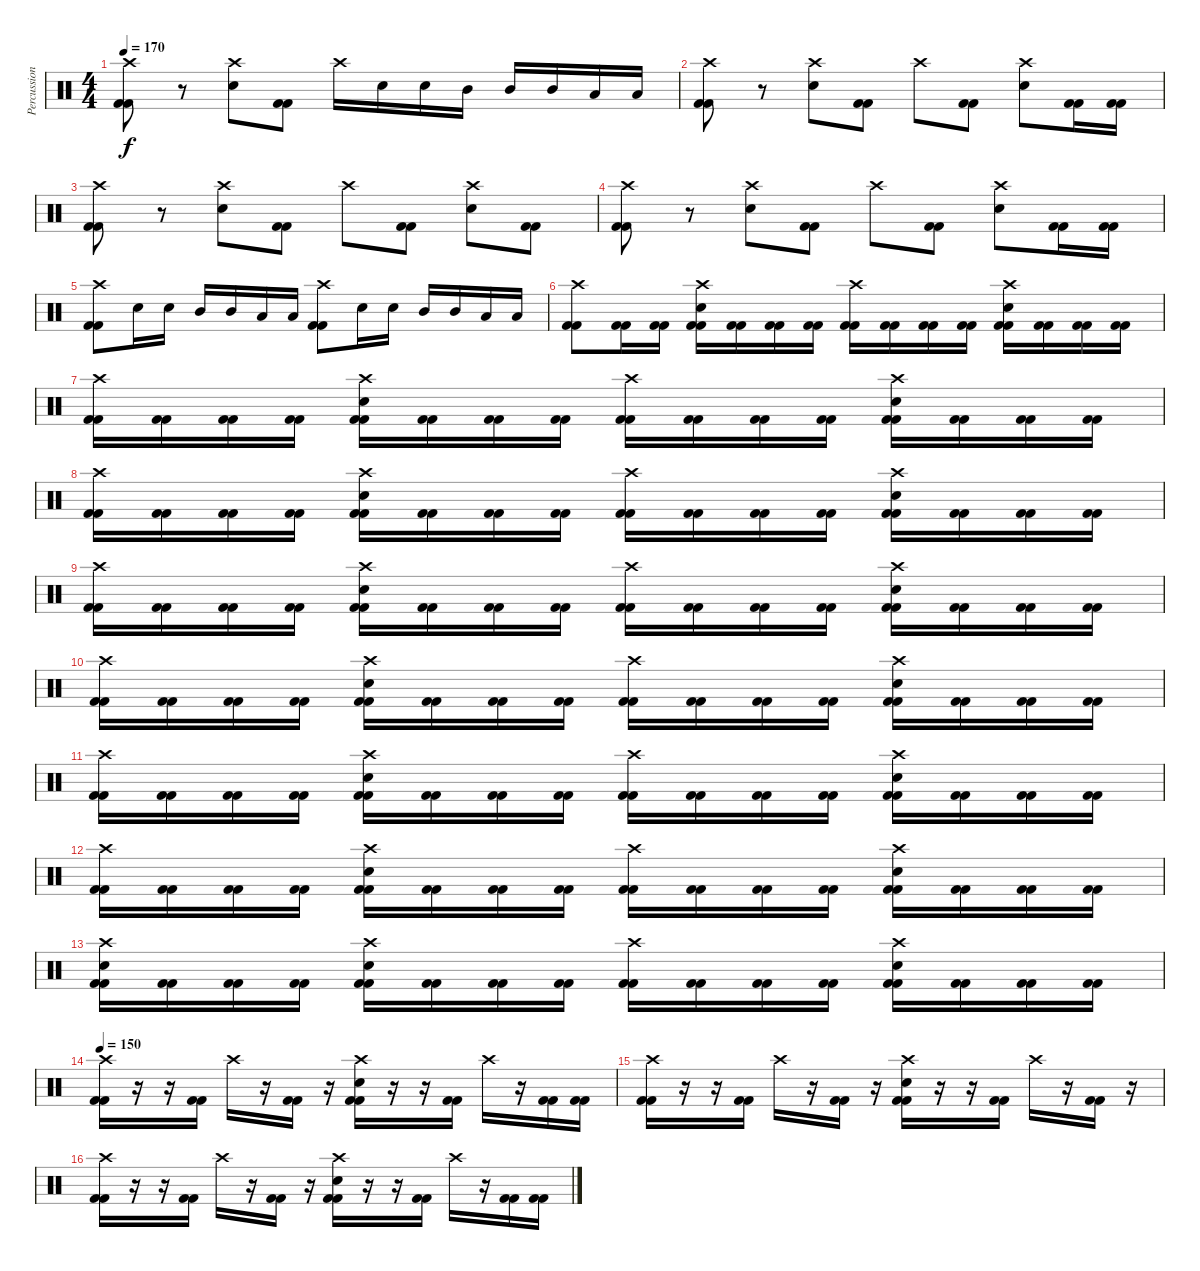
\track ("Percussion" "Percussion") {instrument percussion}
\staff {score}
\articulation defaults
\ts (4 4)
\tempo 170
\clef neutral
\ks c
("Crash high (hit)" "Kick (hit) 2" "Kick (hit) 2").8{dy f} r.8 ("Crash high (hit)" "Electric Snare (hit)").8 ("Kick (hit) 2" "Kick (hit) 2").8 "Crash high (hit)".16 "Electric Snare (hit)".16 "Electric Snare (hit)".16 "Mid Tom (hit)".16 "Mid Tom (hit)".16 "Mid Tom (hit)".16 "Low Tom (hit)".16 "Low Tom (hit)".16 |
("Crash high (hit)" "Kick (hit) 2" "Kick (hit) 2").8 r.8 ("Crash high (hit)" "Electric Snare (hit)").8 ("Kick (hit) 2" "Kick (hit) 2").8 "Crash high (hit)".8 ("Kick (hit) 2" "Kick (hit) 2").8 ("Crash high (hit)" "Electric Snare (hit)").8 ("Kick (hit) 2" "Kick (hit) 2").16 ("Kick (hit) 2" "Kick (hit) 2").16 |
("Crash high (hit)" "Kick (hit) 2" "Kick (hit) 2").8 r.8 ("Crash high (hit)" "Electric Snare (hit)").8 ("Kick (hit) 2" "Kick (hit) 2").8 "Crash high (hit)".8 ("Kick (hit) 2" "Kick (hit) 2").8 ("Crash high (hit)" "Electric Snare (hit)").8 ("Kick (hit) 2" "Kick (hit) 2").8 |
("Crash high (hit)" "Kick (hit) 2" "Kick (hit) 2").8 r.8 ("Crash high (hit)" "Electric Snare (hit)").8 ("Kick (hit) 2" "Kick (hit) 2").8 "Crash high (hit)".8 ("Kick (hit) 2" "Kick (hit) 2").8 ("Crash high (hit)" "Electric Snare (hit)").8 ("Kick (hit) 2" "Kick (hit) 2").16 ("Kick (hit) 2" "Kick (hit) 2").16 |
("Crash high (hit)" "Kick (hit) 2" "Kick (hit) 2").8 "Electric Snare (hit)".16 "Electric Snare (hit)".16 "Mid Tom (hit)".16 "Mid Tom (hit)".16 "Low Tom (hit)".16 "Low Tom (hit)".16 ("Crash high (hit)" "Kick (hit) 2" "Kick (hit) 2").8 "Electric Snare (hit)".16 "Electric Snare (hit)".16 "Mid Tom (hit)".16 "Mid Tom (hit)".16 "Low Tom (hit)".16 "Low Tom (hit)".16 |
("Crash high (hit)" "Kick (hit) 2" "Kick (hit) 2").8 ("Kick (hit) 2" "Kick (hit) 2").16 ("Kick (hit) 2" "Kick (hit) 2").16 ("Crash high (hit)" "Electric Snare (hit)" "Kick (hit) 2" "Kick (hit) 2").16 ("Kick (hit) 2" "Kick (hit) 2").16 ("Kick (hit) 2" "Kick (hit) 2").16 ("Kick (hit) 2" "Kick (hit) 2").16 ("Crash high (hit)" "Kick (hit) 2" "Kick (hit) 2").16 ("Kick (hit) 2" "Kick (hit) 2").16 ("Kick (hit) 2" "Kick (hit) 2").16 ("Kick (hit) 2" "Kick (hit) 2").16 ("Crash high (hit)" "Electric Snare (hit)" "Kick (hit) 2" "Kick (hit) 2").16 ("Kick (hit) 2" "Kick (hit) 2").16 ("Kick (hit) 2" "Kick (hit) 2").16 ("Kick (hit) 2" "Kick (hit) 2").16 |
("Crash high (hit)" "Kick (hit) 2" "Kick (hit) 2").16 ("Kick (hit) 2" "Kick (hit) 2").16 ("Kick (hit) 2" "Kick (hit) 2").16 ("Kick (hit) 2" "Kick (hit) 2").16 ("Crash high (hit)" "Electric Snare (hit)" "Kick (hit) 2" "Kick (hit) 2").16 ("Kick (hit) 2" "Kick (hit) 2").16 ("Kick (hit) 2" "Kick (hit) 2").16 ("Kick (hit) 2" "Kick (hit) 2").16 ("Crash high (hit)" "Kick (hit) 2" "Kick (hit) 2").16 ("Kick (hit) 2" "Kick (hit) 2").16 ("Kick (hit) 2" "Kick (hit) 2").16 ("Kick (hit) 2" "Kick (hit) 2").16 ("Crash high (hit)" "Electric Snare (hit)" "Kick (hit) 2" "Kick (hit) 2").16 ("Kick (hit) 2" "Kick (hit) 2").16 ("Kick (hit) 2" "Kick (hit) 2").16 ("Kick (hit) 2" "Kick (hit) 2").16 |
("Crash high (hit)" "Kick (hit) 2" "Kick (hit) 2").16 ("Kick (hit) 2" "Kick (hit) 2").16 ("Kick (hit) 2" "Kick (hit) 2").16 ("Kick (hit) 2" "Kick (hit) 2").16 ("Crash high (hit)" "Electric Snare (hit)" "Kick (hit) 2" "Kick (hit) 2").16 ("Kick (hit) 2" "Kick (hit) 2").16 ("Kick (hit) 2" "Kick (hit) 2").16 ("Kick (hit) 2" "Kick (hit) 2").16 ("Crash high (hit)" "Kick (hit) 2" "Kick (hit) 2").16 ("Kick (hit) 2" "Kick (hit) 2").16 ("Kick (hit) 2" "Kick (hit) 2").16 ("Kick (hit) 2" "Kick (hit) 2").16 ("Crash high (hit)" "Electric Snare (hit)" "Kick (hit) 2" "Kick (hit) 2").16 ("Kick (hit) 2" "Kick (hit) 2").16 ("Kick (hit) 2" "Kick (hit) 2").16 ("Kick (hit) 2" "Kick (hit) 2").16 |
("Crash high (hit)" "Kick (hit) 2" "Kick (hit) 2").16 ("Kick (hit) 2" "Kick (hit) 2").16 ("Kick (hit) 2" "Kick (hit) 2").16 ("Kick (hit) 2" "Kick (hit) 2").16 ("Crash high (hit)" "Electric Snare (hit)" "Kick (hit) 2" "Kick (hit) 2").16 ("Kick (hit) 2" "Kick (hit) 2").16 ("Kick (hit) 2" "Kick (hit) 2").16 ("Kick (hit) 2" "Kick (hit) 2").16 ("Crash high (hit)" "Kick (hit) 2" "Kick (hit) 2").16 ("Kick (hit) 2" "Kick (hit) 2").16 ("Kick (hit) 2" "Kick (hit) 2").16 ("Kick (hit) 2" "Kick (hit) 2").16 ("Crash high (hit)" "Electric Snare (hit)" "Kick (hit) 2" "Kick (hit) 2").16 ("Kick (hit) 2" "Kick (hit) 2").16 ("Kick (hit) 2" "Kick (hit) 2").16 ("Kick (hit) 2" "Kick (hit) 2").16 |
("Crash high (hit)" "Kick (hit) 2" "Kick (hit) 2").16 ("Kick (hit) 2" "Kick (hit) 2").16 ("Kick (hit) 2" "Kick (hit) 2").16 ("Kick (hit) 2" "Kick (hit) 2").16 ("Crash high (hit)" "Electric Snare (hit)" "Kick (hit) 2" "Kick (hit) 2").16 ("Kick (hit) 2" "Kick (hit) 2").16 ("Kick (hit) 2" "Kick (hit) 2").16 ("Kick (hit) 2" "Kick (hit) 2").16 ("Crash high (hit)" "Kick (hit) 2" "Kick (hit) 2").16 ("Kick (hit) 2" "Kick (hit) 2").16 ("Kick (hit) 2" "Kick (hit) 2").16 ("Kick (hit) 2" "Kick (hit) 2").16 ("Crash high (hit)" "Electric Snare (hit)" "Kick (hit) 2" "Kick (hit) 2").16 ("Kick (hit) 2" "Kick (hit) 2").16 ("Kick (hit) 2" "Kick (hit) 2").16 ("Kick (hit) 2" "Kick (hit) 2").16 |
("Crash high (hit)" "Kick (hit) 2" "Kick (hit) 2").16 ("Kick (hit) 2" "Kick (hit) 2").16 ("Kick (hit) 2" "Kick (hit) 2").16 ("Kick (hit) 2" "Kick (hit) 2").16 ("Crash high (hit)" "Electric Snare (hit)" "Kick (hit) 2" "Kick (hit) 2").16 ("Kick (hit) 2" "Kick (hit) 2").16 ("Kick (hit) 2" "Kick (hit) 2").16 ("Kick (hit) 2" "Kick (hit) 2").16 ("Crash high (hit)" "Kick (hit) 2" "Kick (hit) 2").16 ("Kick (hit) 2" "Kick (hit) 2").16 ("Kick (hit) 2" "Kick (hit) 2").16 ("Kick (hit) 2" "Kick (hit) 2").16 ("Crash high (hit)" "Electric Snare (hit)" "Kick (hit) 2" "Kick (hit) 2").16 ("Kick (hit) 2" "Kick (hit) 2").16 ("Kick (hit) 2" "Kick (hit) 2").16 ("Kick (hit) 2" "Kick (hit) 2").16 |
("Crash high (hit)" "Kick (hit) 2" "Kick (hit) 2").16 ("Kick (hit) 2" "Kick (hit) 2").16 ("Kick (hit) 2" "Kick (hit) 2").16 ("Kick (hit) 2" "Kick (hit) 2").16 ("Crash high (hit)" "Electric Snare (hit)" "Kick (hit) 2" "Kick (hit) 2").16 ("Kick (hit) 2" "Kick (hit) 2").16 ("Kick (hit) 2" "Kick (hit) 2").16 ("Kick (hit) 2" "Kick (hit) 2").16 ("Crash high (hit)" "Kick (hit) 2" "Kick (hit) 2").16 ("Kick (hit) 2" "Kick (hit) 2").16 ("Kick (hit) 2" "Kick (hit) 2").16 ("Kick (hit) 2" "Kick (hit) 2").16 ("Crash high (hit)" "Electric Snare (hit)" "Kick (hit) 2" "Kick (hit) 2").16 ("Kick (hit) 2" "Kick (hit) 2").16 ("Kick (hit) 2" "Kick (hit) 2").16 ("Kick (hit) 2" "Kick (hit) 2").16 |
("Crash high (hit)" "Electric Snare (hit)" "Kick (hit) 2" "Kick (hit) 2").16 ("Kick (hit) 2" "Kick (hit) 2").16 ("Kick (hit) 2" "Kick (hit) 2").16 ("Kick (hit) 2" "Kick (hit) 2").16 ("Crash high (hit)" "Electric Snare (hit)" "Kick (hit) 2" "Kick (hit) 2").16 ("Kick (hit) 2" "Kick (hit) 2").16 ("Kick (hit) 2" "Kick (hit) 2").16 ("Kick (hit) 2" "Kick (hit) 2").16 ("Crash high (hit)" "Kick (hit) 2" "Kick (hit) 2").16 ("Kick (hit) 2" "Kick (hit) 2").16 ("Kick (hit) 2" "Kick (hit) 2").16 ("Kick (hit) 2" "Kick (hit) 2").16 ("Crash high (hit)" "Electric Snare (hit)" "Kick (hit) 2" "Kick (hit) 2").16 ("Kick (hit) 2" "Kick (hit) 2").16 ("Kick (hit) 2" "Kick (hit) 2").16 ("Kick (hit) 2" "Kick (hit) 2").16 |
\tempo 150
("Crash high (hit)" "Kick (hit) 2" "Kick (hit) 2").16 r.16 r.16 ("Kick (hit) 2" "Kick (hit) 2").16 "Crash high (hit)".16 r.16 ("Kick (hit) 2" "Kick (hit) 2").16 r.16 ("Crash high (hit)" "Electric Snare (hit)" "Kick (hit) 2" "Kick (hit) 2").16 r.16 r.16 ("Kick (hit) 2" "Kick (hit) 2").16 "Crash high (hit)".16 r.16 ("Kick (hit) 2" "Kick (hit) 2").16 ("Kick (hit) 2" "Kick (hit) 2").16 |
("Crash high (hit)" "Kick (hit) 2" "Kick (hit) 2").16 r.16 r.16 ("Kick (hit) 2" "Kick (hit) 2").16 "Crash high (hit)".16 r.16 ("Kick (hit) 2" "Kick (hit) 2").16 r.16 ("Crash high (hit)" "Electric Snare (hit)" "Kick (hit) 2" "Kick (hit) 2").16 r.16 r.16 ("Kick (hit) 2" "Kick (hit) 2").16 "Crash high (hit)".16 r.16 ("Kick (hit) 2" "Kick (hit) 2").16 r.16 |
("Crash high (hit)" "Kick (hit) 2" "Kick (hit) 2").16 r.16 r.16 ("Kick (hit) 2" "Kick (hit) 2").16 "Crash high (hit)".16 r.16 ("Kick (hit) 2" "Kick (hit) 2").16 r.16 ("Crash high (hit)" "Electric Snare (hit)" "Kick (hit) 2" "Kick (hit) 2").16 r.16 r.16 ("Kick (hit) 2" "Kick (hit) 2").16 "Crash high (hit)".16 r.16 ("Kick (hit) 2" "Kick (hit) 2").16 ("Kick (hit) 2" "Kick (hit) 2").16
